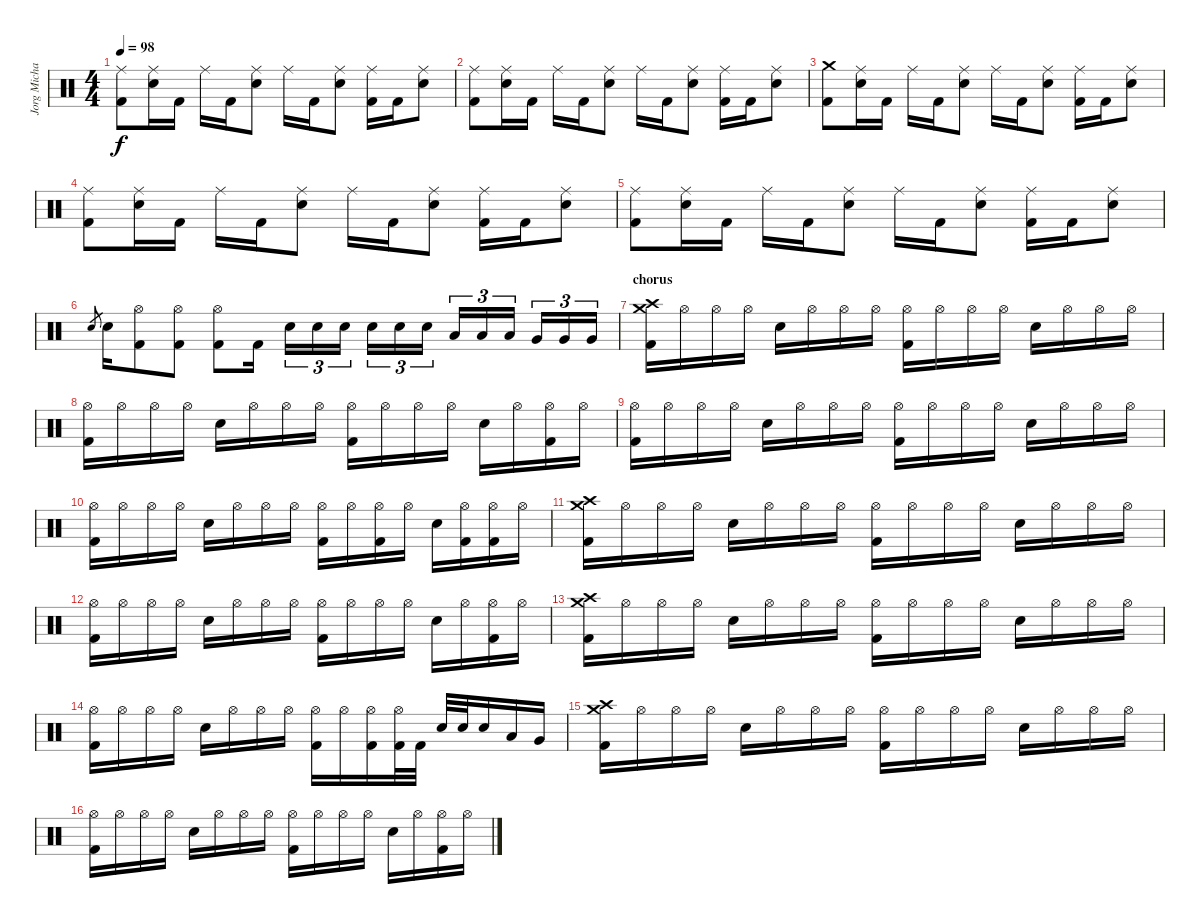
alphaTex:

\track ("Jorg Michael" "Jorg Micha") {instrument percussion}
\staff {score}
\articulation defaults
\ts (4 4)
\tempo 98
\clef neutral
\ks c
("Ride (middle)" "Kick (hit) 2").8{dy f} ("Ride (middle)" "Electric Snare (hit)").16 "Kick (hit) 2".16 "Ride (middle)".16 "Kick (hit) 2".16 ("Ride (middle)" "Electric Snare (hit)").8 "Ride (middle)".16 "Kick (hit) 2".16 ("Ride (middle)" "Electric Snare (hit)").8 ("Ride (middle)" "Kick (hit) 2").16 "Kick (hit) 2".16 ("Ride (middle)" "Electric Snare (hit)").8 |
("Ride (middle)" "Kick (hit) 2").8 ("Ride (middle)" "Electric Snare (hit)").16 "Kick (hit) 2".16 "Ride (middle)".16 "Kick (hit) 2".16 ("Ride (middle)" "Electric Snare (hit)").8 "Ride (middle)".16 "Kick (hit) 2".16 ("Ride (middle)" "Electric Snare (hit)").8 ("Ride (middle)" "Kick (hit) 2").16 "Kick (hit) 2".16 ("Ride (middle)" "Electric Snare (hit)").8 |
("Crash medium (hit)" "Kick (hit) 2").8 ("Ride (middle)" "Electric Snare (hit)").16 "Kick (hit) 2".16 "Ride (middle)".16 "Kick (hit) 2".16 ("Ride (middle)" "Electric Snare (hit)").8 "Ride (middle)".16 "Kick (hit) 2".16 ("Ride (middle)" "Electric Snare (hit)").8 ("Ride (middle)" "Kick (hit) 2").16 "Kick (hit) 2".16 ("Ride (middle)" "Electric Snare (hit)").8 |
("Ride (middle)" "Kick (hit) 2").8 ("Ride (middle)" "Electric Snare (hit)").16 "Kick (hit) 2".16 "Ride (middle)".16 "Kick (hit) 2".16 ("Ride (middle)" "Electric Snare (hit)").8 "Ride (middle)".16 "Kick (hit) 2".16 ("Ride (middle)" "Electric Snare (hit)").8 ("Ride (middle)" "Kick (hit) 2").16 "Kick (hit) 2".16 ("Ride (middle)" "Electric Snare (hit)").8 |
("Ride (middle)" "Kick (hit) 2").8 ("Ride (middle)" "Electric Snare (hit)").16 "Kick (hit) 2".16 "Ride (middle)".16 "Kick (hit) 2".16 ("Ride (middle)" "Electric Snare (hit)").8 "Ride (middle)".16 "Kick (hit) 2".16 ("Ride (middle)" "Electric Snare (hit)").8 ("Ride (middle)" "Kick (hit) 2").16 "Kick (hit) 2".16 ("Ride (middle)" "Electric Snare (hit)").8 |
"Electric Snare (hit)".8{gr} "Electric Snare (hit)".16 ("Hi-Hat (open)" "Kick (hit) 2").8 ("Hi-Hat (open)" "Kick (hit) 2").8 ("Hi-Hat (open)" "Kick (hit) 2").8 "Kick (hit) 2".16 "Electric Snare (hit)".16{tu (3 2)} "Electric Snare (hit)".16{tu (3 2)} "Electric Snare (hit)".16{tu (3 2)} "Electric Snare (hit)".16{tu (3 2)} "Electric Snare (hit)".16{tu (3 2)} "Electric Snare (hit)".16{tu (3 2)} "Low Tom (hit)".16{tu (3 2)} "Low Tom (hit)".16{tu (3 2)} "Low Tom (hit)".16{tu (3 2)} "Very Low Tom (hit)".16{tu (3 2)} "Very Low Tom (hit)".16{tu (3 2)} "Very Low Tom (hit)".16{tu (3 2)} |
\section ("" "chorus")
("Crash medium (hit)" "Crash high (hit)" "Kick (hit) 2").16 "Hi-Hat (open)".16 "Hi-Hat (open)".16 "Hi-Hat (open)".16 "Electric Snare (hit)".16 "Hi-Hat (open)".16 "Hi-Hat (open)".16 "Hi-Hat (open)".16 ("Hi-Hat (open)" "Kick (hit) 2").16 "Hi-Hat (open)".16 "Hi-Hat (open)".16 "Hi-Hat (open)".16 "Electric Snare (hit)".16 "Hi-Hat (open)".16 "Hi-Hat (open)".16 "Hi-Hat (open)".16 |
("Hi-Hat (open)" "Kick (hit) 2").16 "Hi-Hat (open)".16 "Hi-Hat (open)".16 "Hi-Hat (open)".16 "Electric Snare (hit)".16 "Hi-Hat (open)".16 "Hi-Hat (open)".16 "Hi-Hat (open)".16 ("Hi-Hat (open)" "Kick (hit) 2").16 "Hi-Hat (open)".16 "Hi-Hat (open)".16 "Hi-Hat (open)".16 "Electric Snare (hit)".16 "Hi-Hat (open)".16 ("Hi-Hat (open)" "Kick (hit) 2").16 "Hi-Hat (open)".16 |
("Hi-Hat (open)" "Kick (hit) 2").16 "Hi-Hat (open)".16 "Hi-Hat (open)".16 "Hi-Hat (open)".16 "Electric Snare (hit)".16 "Hi-Hat (open)".16 "Hi-Hat (open)".16 "Hi-Hat (open)".16 ("Hi-Hat (open)" "Kick (hit) 2").16 "Hi-Hat (open)".16 "Hi-Hat (open)".16 "Hi-Hat (open)".16 "Electric Snare (hit)".16 "Hi-Hat (open)".16 "Hi-Hat (open)".16 "Hi-Hat (open)".16 |
("Hi-Hat (open)" "Kick (hit) 2").16 "Hi-Hat (open)".16 "Hi-Hat (open)".16 "Hi-Hat (open)".16 "Electric Snare (hit)".16 "Hi-Hat (open)".16 "Hi-Hat (open)".16 "Hi-Hat (open)".16 ("Hi-Hat (open)" "Kick (hit) 2").16 "Hi-Hat (open)".16 ("Hi-Hat (open)" "Kick (hit) 2").16 "Hi-Hat (open)".16 "Electric Snare (hit)".16 ("Hi-Hat (open)" "Kick (hit) 2").16 ("Hi-Hat (open)" "Kick (hit) 2").16 "Hi-Hat (open)".16 |
("Crash medium (hit)" "Crash high (hit)" "Kick (hit) 2").16 "Hi-Hat (open)".16 "Hi-Hat (open)".16 "Hi-Hat (open)".16 "Electric Snare (hit)".16 "Hi-Hat (open)".16 "Hi-Hat (open)".16 "Hi-Hat (open)".16 ("Hi-Hat (open)" "Kick (hit) 2").16 "Hi-Hat (open)".16 "Hi-Hat (open)".16 "Hi-Hat (open)".16 "Electric Snare (hit)".16 "Hi-Hat (open)".16 "Hi-Hat (open)".16 "Hi-Hat (open)".16 |
("Hi-Hat (open)" "Kick (hit) 2").16 "Hi-Hat (open)".16 "Hi-Hat (open)".16 "Hi-Hat (open)".16 "Electric Snare (hit)".16 "Hi-Hat (open)".16 "Hi-Hat (open)".16 "Hi-Hat (open)".16 ("Hi-Hat (open)" "Kick (hit) 2").16 "Hi-Hat (open)".16 "Hi-Hat (open)".16 "Hi-Hat (open)".16 "Electric Snare (hit)".16 "Hi-Hat (open)".16 ("Hi-Hat (open)" "Kick (hit) 2").16 "Hi-Hat (open)".16 |
("Crash medium (hit)" "Crash high (hit)" "Kick (hit) 2").16 "Hi-Hat (open)".16 "Hi-Hat (open)".16 "Hi-Hat (open)".16 "Electric Snare (hit)".16 "Hi-Hat (open)".16 "Hi-Hat (open)".16 "Hi-Hat (open)".16 ("Hi-Hat (open)" "Kick (hit) 2").16 "Hi-Hat (open)".16 "Hi-Hat (open)".16 "Hi-Hat (open)".16 "Electric Snare (hit)".16 "Hi-Hat (open)".16 "Hi-Hat (open)".16 "Hi-Hat (open)".16 |
("Hi-Hat (open)" "Kick (hit) 2").16 "Hi-Hat (open)".16 "Hi-Hat (open)".16 "Hi-Hat (open)".16 "Electric Snare (hit)".16 "Hi-Hat (open)".16 "Hi-Hat (open)".16 "Hi-Hat (open)".16 ("Hi-Hat (open)" "Kick (hit) 2").16 "Hi-Hat (open)".16 ("Hi-Hat (open)" "Kick (hit) 2").16 ("Hi-Hat (open)" "Kick (hit) 2").32 "Kick (hit) 2".32 "Electric Snare (hit)".32 "Electric Snare (hit)".32 "Electric Snare (hit)".16 "Low Tom (hit)".16 "Very Low Tom (hit)".16 |
("Crash medium (hit)" "Crash high (hit)" "Kick (hit) 2").16 "Hi-Hat (open)".16 "Hi-Hat (open)".16 "Hi-Hat (open)".16 "Electric Snare (hit)".16 "Hi-Hat (open)".16 "Hi-Hat (open)".16 "Hi-Hat (open)".16 ("Hi-Hat (open)" "Kick (hit) 2").16 "Hi-Hat (open)".16 "Hi-Hat (open)".16 "Hi-Hat (open)".16 "Electric Snare (hit)".16 "Hi-Hat (open)".16 "Hi-Hat (open)".16 "Hi-Hat (open)".16 |
("Hi-Hat (open)" "Kick (hit) 2").16 "Hi-Hat (open)".16 "Hi-Hat (open)".16 "Hi-Hat (open)".16 "Electric Snare (hit)".16 "Hi-Hat (open)".16 "Hi-Hat (open)".16 "Hi-Hat (open)".16 ("Hi-Hat (open)" "Kick (hit) 2").16 "Hi-Hat (open)".16 "Hi-Hat (open)".16 "Hi-Hat (open)".16 "Electric Snare (hit)".16 "Hi-Hat (open)".16 ("Hi-Hat (open)" "Kick (hit) 2").16 "Hi-Hat (open)".16
